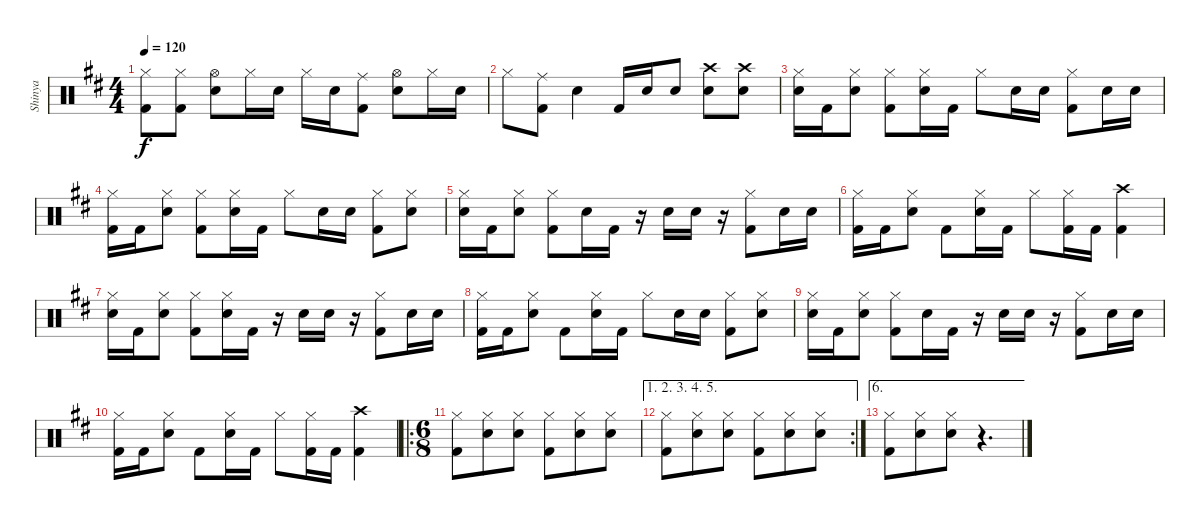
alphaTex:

\track ("Shinya" "Shinya") {instrument percussion}
\staff {score}
\articulation defaults
\ts (4 4)
\tempo 120
\clef neutral
\ks bminor
("Kick (hit) 2" "Hi-Hat (closed)").8{dy f} ("Hi-Hat (closed)" "Kick (hit) 2").8 ("Hi-Hat (open)" "Snare (hit) 2").8 "Hi-Hat (closed)".16 "Snare (hit) 2".16 "Hi-Hat (closed)".16 "Snare (hit) 2".16 ("Ride (middle)" "Kick (hit) 2").8 ("Hi-Hat (open)" "Snare (hit) 2").8 "Hi-Hat (closed)".16 "Snare (hit) 2".16 |
"Hi-Hat (closed)".8 ("Ride (middle)" "Kick (hit) 2").8 "Snare (hit) 2".4 "Kick (hit) 2".16 "Snare (hit) 2".16 "Snare (hit) 2".8 ("Snare (hit) 2" "Crash high (hit)").8 ("Crash high (hit)" "Snare (hit) 2").8 |
("Hi-Hat (closed)" "Snare (hit) 2").16 "Kick (hit) 2".16 ("Hi-Hat (closed)" "Snare (hit) 2").8 ("Hi-Hat (closed)" "Kick (hit) 2").8 ("Hi-Hat (closed)" "Snare (hit) 2").16 "Kick (hit) 2".16 "Hi-Hat (closed)".8 "Snare (hit) 2".16 "Snare (hit) 2".16 ("Hi-Hat (closed)" "Kick (hit) 2").8 "Snare (hit) 2".16 "Snare (hit) 2".16 |
("Hi-Hat (closed)" "Kick (hit) 2").16 "Kick (hit) 2".16 ("Snare (hit) 2" "Hi-Hat (closed)").8 ("Hi-Hat (closed)" "Kick (hit) 2").8 ("Hi-Hat (closed)" "Snare (hit) 2").16 "Kick (hit) 2".16 "Hi-Hat (closed)".8 "Snare (hit) 2".16 "Snare (hit) 2".16 ("Hi-Hat (closed)" "Kick (hit) 2").8 ("Hi-Hat (closed)" "Snare (hit) 2").8 |
("Hi-Hat (closed)" "Snare (hit) 2").16 "Kick (hit) 2".16 ("Hi-Hat (closed)" "Snare (hit) 2").8 ("Hi-Hat (closed)" "Kick (hit) 2").8 "Snare (hit) 2".16 "Kick (hit) 2".16 r.16 "Snare (hit) 2".16 "Snare (hit) 2".16 r.16 ("Hi-Hat (closed)" "Kick (hit) 2").8 "Snare (hit) 2".16 "Snare (hit) 2".16 |
("Hi-Hat (closed)" "Kick (hit) 2").16 "Kick (hit) 2".16 ("Hi-Hat (closed)" "Snare (hit) 2").8 "Kick (hit) 2".8 ("Hi-Hat (closed)" "Snare (hit) 2").16 "Kick (hit) 2".16 "Hi-Hat (closed)".8 ("Hi-Hat (closed)" "Kick (hit) 2").16 "Kick (hit) 2".16 ("Crash high (hit)" "Kick (hit) 2").4 |
("Hi-Hat (closed)" "Snare (hit) 2").16 "Kick (hit) 2".16 ("Hi-Hat (closed)" "Snare (hit) 2").8 ("Hi-Hat (closed)" "Kick (hit) 2").8 ("Hi-Hat (closed)" "Snare (hit) 2").16 "Kick (hit) 2".16 r.16 "Snare (hit) 2".16 "Snare (hit) 2".16 r.16 ("Hi-Hat (closed)" "Kick (hit) 2").8 "Snare (hit) 2".16 "Snare (hit) 2".16 |
("Hi-Hat (closed)" "Kick (hit) 2").16 "Kick (hit) 2".16 ("Snare (hit) 2" "Hi-Hat (closed)").8 "Kick (hit) 2".8 ("Hi-Hat (closed)" "Snare (hit) 2").16 "Kick (hit) 2".16 "Hi-Hat (closed)".8 "Snare (hit) 2".16 "Snare (hit) 2".16 ("Hi-Hat (closed)" "Kick (hit) 2").8 ("Hi-Hat (closed)" "Snare (hit) 2").8 |
("Hi-Hat (closed)" "Snare (hit) 2").16 "Kick (hit) 2".16 ("Hi-Hat (closed)" "Snare (hit) 2").8 ("Hi-Hat (closed)" "Kick (hit) 2").8 "Snare (hit) 2".16 "Kick (hit) 2".16 r.16 "Snare (hit) 2".16 "Snare (hit) 2".16 r.16 ("Hi-Hat (closed)" "Kick (hit) 2").8 "Snare (hit) 2".16 "Snare (hit) 2".16 |
("Hi-Hat (closed)" "Kick (hit) 2").16 "Kick (hit) 2".16 ("Hi-Hat (closed)" "Snare (hit) 2").8 "Kick (hit) 2".8 ("Hi-Hat (closed)" "Snare (hit) 2").16 "Kick (hit) 2".16 "Hi-Hat (closed)".8 ("Hi-Hat (closed)" "Kick (hit) 2").16 "Kick (hit) 2".16 ("Crash high (hit)" "Kick (hit) 2").4 |
\ro
\ts (6 8)
("Hi-Hat (closed)" "Kick (hit) 2").8 ("Hi-Hat (closed)" "Snare (hit) 2").8 ("Hi-Hat (closed)" "Snare (hit) 2").8 ("Hi-Hat (closed)" "Kick (hit) 2").8 ("Hi-Hat (closed)" "Snare (hit) 2").8 ("Hi-Hat (closed)" "Snare (hit) 2").8 |
\ae (1 2 3 4 5)
\rc 2
("Hi-Hat (closed)" "Kick (hit) 2").8 ("Hi-Hat (closed)" "Snare (hit) 2").8 ("Hi-Hat (closed)" "Snare (hit) 2").8 ("Hi-Hat (closed)" "Kick (hit) 2").8 ("Hi-Hat (closed)" "Snare (hit) 2").8 ("Hi-Hat (closed)" "Snare (hit) 2").8 |
\ae 6
("Hi-Hat (closed)" "Kick (hit) 2").8 ("Hi-Hat (closed)" "Snare (hit) 2").8 ("Hi-Hat (closed)" "Snare (hit) 2").8 r.4{d}
